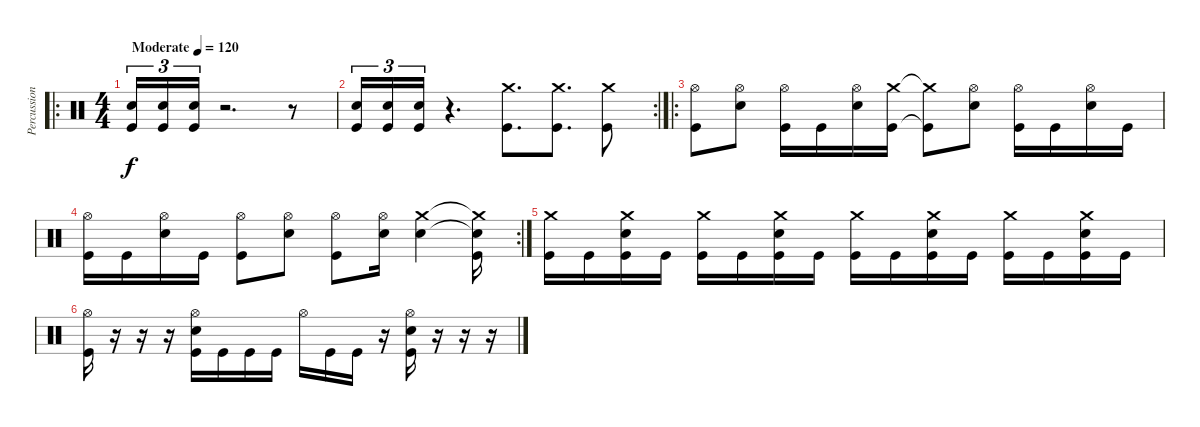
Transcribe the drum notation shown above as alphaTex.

\track ("Percussion" "Percussion") {instrument percussion}
\staff {score}
\articulation defaults
\ro
\ts (4 4)
\tempo (120 "Moderate")
\clef neutral
\ks c
("Snare (hit) 2" "Kick (hit)").16{tu (3 2) dy f} ("Snare (hit) 2" "Kick (hit)").16{tu (3 2)} ("Snare (hit) 2" "Kick (hit)").16{tu (3 2)} r.2{d} r.8 |
\rc 2
("Snare (hit) 2" "Kick (hit)").16{tu (3 2)} ("Snare (hit) 2" "Kick (hit)").16{tu (3 2)} ("Snare (hit) 2" "Kick (hit)").16{tu (3 2)} r.4{d} ("Crash medium (hit)" "Kick (hit)").8{d} ("Crash medium (hit)" "Kick (hit)").8{d} ("Crash medium (hit)" "Kick (hit)").8 |
\ro
("Hi-Hat (open)" "Kick (hit)").8 ("Hi-Hat (open)" "Snare (hit) 2").8 ("Hi-Hat (open)" "Kick (hit)").16 "Kick (hit)".16 ("Hi-Hat (open)" "Snare (hit) 2").16 ("Crash medium (hit)" "Kick (hit)").16 ("Crash medium (hit)"{t} "Kick (hit)"{t}).8 ("Hi-Hat (open)" "Snare (hit) 2").8 ("Hi-Hat (open)" "Kick (hit)").16 "Kick (hit)".16 ("Hi-Hat (open)" "Snare (hit) 2").16 "Kick (hit)".16 |
\rc 2
("Hi-Hat (open)" "Kick (hit)").16 "Kick (hit)".16 ("Hi-Hat (open)" "Snare (hit) 2").16 "Kick (hit)".16 ("Hi-Hat (open)" "Kick (hit)").8 ("Hi-Hat (open)" "Snare (hit) 2").8 ("Hi-Hat (open)" "Kick (hit)").8 ("Hi-Hat (open)" "Snare (hit) 2").16 ("Crash medium (hit)" "Snare (hit) 2").4 ("Crash medium (hit)"{t} "Snare (hit) 2"{t} "Kick (hit)").16 |
("Crash medium (hit)" "Kick (hit)").16 "Kick (hit)".16 ("Crash medium (hit)" "Snare (hit) 2" "Kick (hit)").16 "Kick (hit)".16 ("Crash medium (hit)" "Kick (hit)").16 "Kick (hit)".16 ("Crash medium (hit)" "Snare (hit) 2" "Kick (hit)").16 "Kick (hit)".16 ("Crash medium (hit)" "Kick (hit)").16 "Kick (hit)".16 ("Crash medium (hit)" "Snare (hit) 2" "Kick (hit)").16 "Kick (hit)".16 ("Crash medium (hit)" "Kick (hit)").16 "Kick (hit)".16 ("Crash medium (hit)" "Snare (hit) 2" "Kick (hit)").16 "Kick (hit)".16 |
("Hi-Hat (open)" "Kick (hit)").16 r.16 r.16 r.16 ("Hi-Hat (open)" "Snare (hit) 2" "Kick (hit)").16 "Kick (hit)".16 "Kick (hit)".16 "Kick (hit)".16 "Hi-Hat (open)".16 "Kick (hit)".16 "Kick (hit)".16 r.16 ("Hi-Hat (open)" "Snare (hit) 2" "Kick (hit)").16 r.16 r.16 r.16
